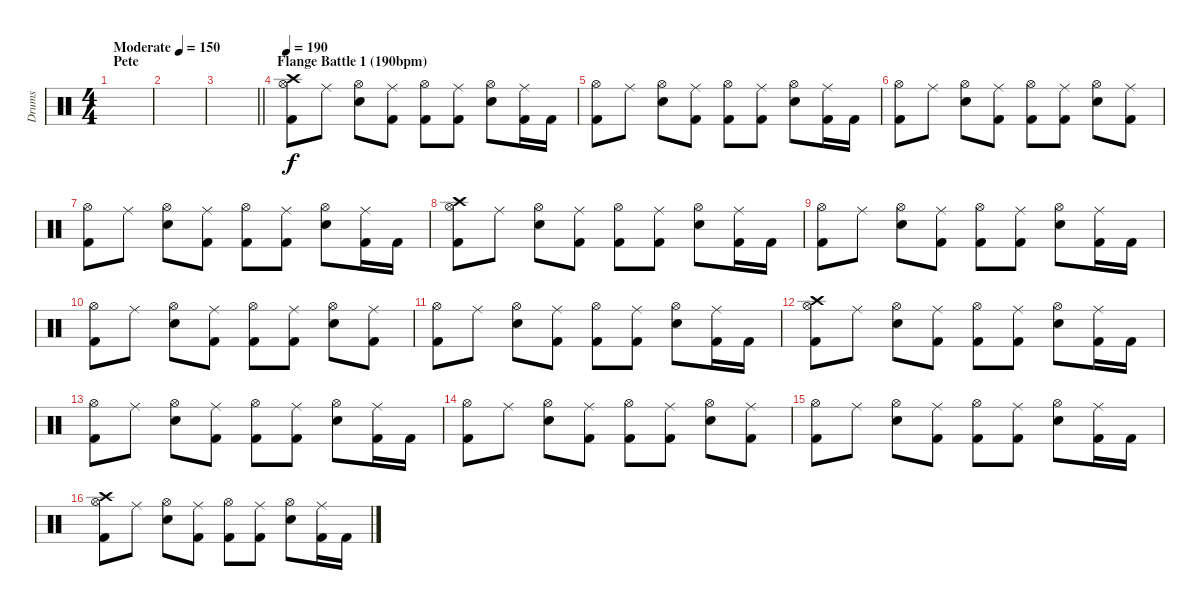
\track ("Drums" "Drums") {instrument percussion}
\staff {score}
\articulation defaults
\ts (4 4)
\section ("" "Pete")
\tempo (150 "Moderate")
\clef neutral
\ks c
|
|
\barLineRight lightlight
|
\section ("" "Flange Battle 1 (190bpm)")
\tempo 190
("Crash high (hit)" "Hi-Hat (open)" "Kick (hit) 2").8 "Ride (middle)".8 ("Hi-Hat (open)" "Snare (hit) 2").8 ("Ride (middle)" "Kick (hit) 2").8 ("Hi-Hat (open)" "Kick (hit) 2").8 ("Ride (middle)" "Kick (hit) 2").8 ("Hi-Hat (open)" "Snare (hit) 2").8 ("Ride (middle)" "Kick (hit) 2").16 "Kick (hit) 2".16 |
("Hi-Hat (open)" "Kick (hit) 2").8 "Ride (middle)".8 ("Hi-Hat (open)" "Snare (hit) 2").8 ("Ride (middle)" "Kick (hit) 2").8 ("Hi-Hat (open)" "Kick (hit) 2").8 ("Ride (middle)" "Kick (hit) 2").8 ("Hi-Hat (open)" "Snare (hit) 2").8 ("Ride (middle)" "Kick (hit) 2").16 "Kick (hit) 2".16 |
("Hi-Hat (open)" "Kick (hit) 2").8 "Ride (middle)".8 ("Hi-Hat (open)" "Snare (hit) 2").8 ("Ride (middle)" "Kick (hit) 2").8 ("Hi-Hat (open)" "Kick (hit) 2").8 ("Ride (middle)" "Kick (hit) 2").8 ("Hi-Hat (open)" "Snare (hit) 2").8 ("Ride (middle)" "Kick (hit) 2").8 |
("Hi-Hat (open)" "Kick (hit) 2").8 "Ride (middle)".8 ("Hi-Hat (open)" "Snare (hit) 2").8 ("Ride (middle)" "Kick (hit) 2").8 ("Hi-Hat (open)" "Kick (hit) 2").8 ("Ride (middle)" "Kick (hit) 2").8 ("Hi-Hat (open)" "Snare (hit) 2").8 ("Ride (middle)" "Kick (hit) 2").16 "Kick (hit) 2".16 |
("Crash high (hit)" "Hi-Hat (open)" "Kick (hit) 2").8 "Ride (middle)".8 ("Hi-Hat (open)" "Snare (hit) 2").8 ("Ride (middle)" "Kick (hit) 2").8 ("Hi-Hat (open)" "Kick (hit) 2").8 ("Ride (middle)" "Kick (hit) 2").8 ("Hi-Hat (open)" "Snare (hit) 2").8 ("Ride (middle)" "Kick (hit) 2").16 "Kick (hit) 2".16 |
("Hi-Hat (open)" "Kick (hit) 2").8 "Ride (middle)".8 ("Hi-Hat (open)" "Snare (hit) 2").8 ("Ride (middle)" "Kick (hit) 2").8 ("Hi-Hat (open)" "Kick (hit) 2").8 ("Ride (middle)" "Kick (hit) 2").8 ("Hi-Hat (open)" "Snare (hit) 2").8 ("Ride (middle)" "Kick (hit) 2").16 "Kick (hit) 2".16 |
("Hi-Hat (open)" "Kick (hit) 2").8 "Ride (middle)".8 ("Hi-Hat (open)" "Snare (hit) 2").8 ("Ride (middle)" "Kick (hit) 2").8 ("Hi-Hat (open)" "Kick (hit) 2").8 ("Ride (middle)" "Kick (hit) 2").8 ("Hi-Hat (open)" "Snare (hit) 2").8 ("Ride (middle)" "Kick (hit) 2").8 |
("Hi-Hat (open)" "Kick (hit) 2").8 "Ride (middle)".8 ("Hi-Hat (open)" "Snare (hit) 2").8 ("Ride (middle)" "Kick (hit) 2").8 ("Hi-Hat (open)" "Kick (hit) 2").8 ("Ride (middle)" "Kick (hit) 2").8 ("Hi-Hat (open)" "Snare (hit) 2").8 ("Ride (middle)" "Kick (hit) 2").16 "Kick (hit) 2".16 |
("Crash high (hit)" "Hi-Hat (open)" "Kick (hit) 2").8 "Ride (middle)".8 ("Hi-Hat (open)" "Snare (hit) 2").8 ("Ride (middle)" "Kick (hit) 2").8 ("Hi-Hat (open)" "Kick (hit) 2").8 ("Ride (middle)" "Kick (hit) 2").8 ("Hi-Hat (open)" "Snare (hit) 2").8 ("Ride (middle)" "Kick (hit) 2").16 "Kick (hit) 2".16 |
("Hi-Hat (open)" "Kick (hit) 2").8 "Ride (middle)".8 ("Hi-Hat (open)" "Snare (hit) 2").8 ("Ride (middle)" "Kick (hit) 2").8 ("Hi-Hat (open)" "Kick (hit) 2").8 ("Ride (middle)" "Kick (hit) 2").8 ("Hi-Hat (open)" "Snare (hit) 2").8 ("Ride (middle)" "Kick (hit) 2").16 "Kick (hit) 2".16 |
("Hi-Hat (open)" "Kick (hit) 2").8 "Ride (middle)".8 ("Hi-Hat (open)" "Snare (hit) 2").8 ("Ride (middle)" "Kick (hit) 2").8 ("Hi-Hat (open)" "Kick (hit) 2").8 ("Ride (middle)" "Kick (hit) 2").8 ("Hi-Hat (open)" "Snare (hit) 2").8 ("Ride (middle)" "Kick (hit) 2").8 |
("Hi-Hat (open)" "Kick (hit) 2").8 "Ride (middle)".8 ("Hi-Hat (open)" "Snare (hit) 2").8 ("Ride (middle)" "Kick (hit) 2").8 ("Hi-Hat (open)" "Kick (hit) 2").8 ("Ride (middle)" "Kick (hit) 2").8 ("Hi-Hat (open)" "Snare (hit) 2").8 ("Ride (middle)" "Kick (hit) 2").16 "Kick (hit) 2".16 |
("Crash high (hit)" "Hi-Hat (open)" "Kick (hit) 2").8 "Ride (middle)".8 ("Hi-Hat (open)" "Snare (hit) 2").8 ("Ride (middle)" "Kick (hit) 2").8 ("Hi-Hat (open)" "Kick (hit) 2").8 ("Ride (middle)" "Kick (hit) 2").8 ("Hi-Hat (open)" "Snare (hit) 2").8 ("Ride (middle)" "Kick (hit) 2").16 "Kick (hit) 2".16
